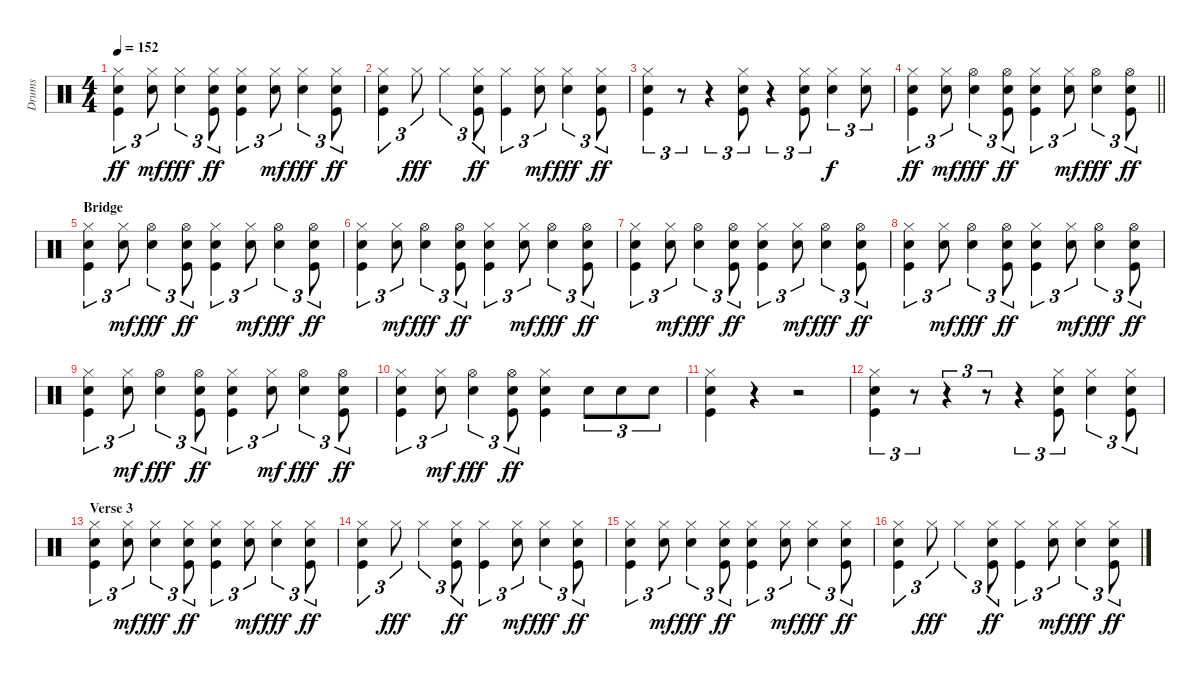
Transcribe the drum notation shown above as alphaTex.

\track ("Drums" "Drums") {instrument percussion}
\staff {score}
\articulation defaults
\ts (4 4)
\tempo 152
\clef neutral
\ks c
("Hi-Hat (closed)" "Snare (hit) 2" "Kick (hit)").4{tu (3 2) dy ff} ("Hi-Hat (closed)" "Snare (hit) 2").8{tu (3 2) dy mf} ("Hi-Hat (closed)" "Snare (hit) 2").4{tu (3 2) dy fff} ("Hi-Hat (closed)" "Snare (hit) 2" "Kick (hit)").8{tu (3 2) dy ff} ("Hi-Hat (closed)" "Snare (hit) 2" "Kick (hit)").4{tu (3 2)} ("Hi-Hat (closed)" "Snare (hit) 2").8{tu (3 2) dy mf} ("Hi-Hat (closed)" "Snare (hit) 2").4{tu (3 2) dy fff} ("Hi-Hat (closed)" "Snare (hit) 2" "Kick (hit)").8{tu (3 2) dy ff} |
("Hi-Hat (closed)" "Snare (hit) 2" "Kick (hit)").4{tu (3 2)} "Hi-Hat (closed)".8{tu (3 2) dy fff} "Hi-Hat (closed)".4{tu (3 2)} ("Hi-Hat (closed)" "Snare (hit) 2" "Kick (hit)").8{tu (3 2) dy ff} ("Hi-Hat (closed)" "Kick (hit)").4{tu (3 2)} ("Hi-Hat (closed)" "Snare (hit) 2").8{tu (3 2) dy mf} ("Hi-Hat (closed)" "Snare (hit) 2").4{tu (3 2) dy fff} ("Hi-Hat (closed)" "Snare (hit) 2" "Kick (hit)").8{tu (3 2) dy ff} |
("Hi-Hat (closed)" "Snare (hit) 2" "Kick (hit)").4{tu (3 2)} r.8{tu (3 2)} r.4{tu (3 2)} ("Hi-Hat (closed)" "Snare (hit) 2" "Kick (hit)").8{tu (3 2)} r.4{tu (3 2)} ("Hi-Hat (closed)" "Snare (hit) 2" "Kick (hit)").8{tu (3 2)} ("Hi-Hat (closed)" "Snare (hit) 2").4{tu (3 2) dy f} ("Hi-Hat (closed)" "Snare (hit) 2").8{tu (3 2)} |
\barLineRight lightlight
("Hi-Hat (closed)" "Snare (hit) 2" "Kick (hit)").4{tu (3 2) dy ff} ("Hi-Hat (closed)" "Snare (hit) 2").8{tu (3 2) dy mf} ("Hi-Hat (open)" "Snare (hit) 2").4{tu (3 2) dy fff} ("Hi-Hat (open)" "Snare (hit) 2" "Kick (hit)").8{tu (3 2) dy ff} ("Hi-Hat (closed)" "Snare (hit) 2" "Kick (hit)").4{tu (3 2)} ("Hi-Hat (closed)" "Snare (hit) 2").8{tu (3 2) dy mf} ("Hi-Hat (open)" "Snare (hit) 2").4{tu (3 2) dy fff} ("Hi-Hat (open)" "Snare (hit) 2" "Kick (hit)").8{tu (3 2) dy ff} |
\section ("" "Bridge")
("Hi-Hat (closed)" "Snare (hit) 2" "Kick (hit)").4{tu (3 2)} ("Hi-Hat (closed)" "Snare (hit) 2").8{tu (3 2) dy mf} ("Hi-Hat (open)" "Snare (hit) 2").4{tu (3 2) dy fff} ("Hi-Hat (open)" "Snare (hit) 2" "Kick (hit)").8{tu (3 2) dy ff} ("Hi-Hat (closed)" "Snare (hit) 2" "Kick (hit)").4{tu (3 2)} ("Hi-Hat (closed)" "Snare (hit) 2").8{tu (3 2) dy mf} ("Hi-Hat (open)" "Snare (hit) 2").4{tu (3 2) dy fff} ("Hi-Hat (open)" "Snare (hit) 2" "Kick (hit)").8{tu (3 2) dy ff} |
("Hi-Hat (closed)" "Snare (hit) 2" "Kick (hit)").4{tu (3 2)} ("Hi-Hat (closed)" "Snare (hit) 2").8{tu (3 2) dy mf} ("Hi-Hat (open)" "Snare (hit) 2").4{tu (3 2) dy fff} ("Hi-Hat (open)" "Snare (hit) 2" "Kick (hit)").8{tu (3 2) dy ff} ("Hi-Hat (closed)" "Snare (hit) 2" "Kick (hit)").4{tu (3 2)} ("Hi-Hat (closed)" "Snare (hit) 2").8{tu (3 2) dy mf} ("Hi-Hat (open)" "Snare (hit) 2").4{tu (3 2) dy fff} ("Hi-Hat (open)" "Snare (hit) 2" "Kick (hit)").8{tu (3 2) dy ff} |
("Hi-Hat (closed)" "Snare (hit) 2" "Kick (hit)").4{tu (3 2)} ("Hi-Hat (closed)" "Snare (hit) 2").8{tu (3 2) dy mf} ("Hi-Hat (open)" "Snare (hit) 2").4{tu (3 2) dy fff} ("Hi-Hat (open)" "Snare (hit) 2" "Kick (hit)").8{tu (3 2) dy ff} ("Hi-Hat (closed)" "Snare (hit) 2" "Kick (hit)").4{tu (3 2)} ("Hi-Hat (closed)" "Snare (hit) 2").8{tu (3 2) dy mf} ("Hi-Hat (open)" "Snare (hit) 2").4{tu (3 2) dy fff} ("Hi-Hat (open)" "Snare (hit) 2" "Kick (hit)").8{tu (3 2) dy ff} |
("Hi-Hat (closed)" "Snare (hit) 2" "Kick (hit)").4{tu (3 2)} ("Hi-Hat (closed)" "Snare (hit) 2").8{tu (3 2) dy mf} ("Hi-Hat (open)" "Snare (hit) 2").4{tu (3 2) dy fff} ("Hi-Hat (open)" "Snare (hit) 2" "Kick (hit)").8{tu (3 2) dy ff} ("Hi-Hat (closed)" "Snare (hit) 2" "Kick (hit)").4{tu (3 2)} ("Hi-Hat (closed)" "Snare (hit) 2").8{tu (3 2) dy mf} ("Hi-Hat (open)" "Snare (hit) 2").4{tu (3 2) dy fff} ("Hi-Hat (open)" "Snare (hit) 2" "Kick (hit)").8{tu (3 2) dy ff} |
("Hi-Hat (closed)" "Snare (hit) 2" "Kick (hit)").4{tu (3 2)} ("Hi-Hat (closed)" "Snare (hit) 2").8{tu (3 2) dy mf} ("Hi-Hat (open)" "Snare (hit) 2").4{tu (3 2) dy fff} ("Hi-Hat (open)" "Snare (hit) 2" "Kick (hit)").8{tu (3 2) dy ff} ("Hi-Hat (closed)" "Snare (hit) 2" "Kick (hit)").4{tu (3 2)} ("Hi-Hat (closed)" "Snare (hit) 2").8{tu (3 2) dy mf} ("Hi-Hat (open)" "Snare (hit) 2").4{tu (3 2) dy fff} ("Hi-Hat (open)" "Snare (hit) 2" "Kick (hit)").8{tu (3 2) dy ff} |
("Hi-Hat (closed)" "Snare (hit) 2" "Kick (hit)").4{tu (3 2)} ("Hi-Hat (closed)" "Snare (hit) 2").8{tu (3 2) dy mf} ("Hi-Hat (open)" "Snare (hit) 2").4{tu (3 2) dy fff} ("Hi-Hat (open)" "Snare (hit) 2" "Kick (hit)").8{tu (3 2) dy ff} ("Hi-Hat (closed)" "Snare (hit) 2" "Kick (hit)").4 "Snare (hit) 2".8{tu (3 2)} "Snare (hit) 2".8{tu (3 2)} "Snare (hit) 2".8{tu (3 2)} |
("Hi-Hat (closed)" "Snare (hit) 2" "Kick (hit)").4 r.4 r.2 |
("Hi-Hat (closed)" "Snare (hit) 2" "Kick (hit)").4{tu (3 2)} r.8{tu (3 2)} r.4{tu (3 2)} r.8{tu (3 2)} r.4{tu (3 2)} ("Hi-Hat (closed)" "Snare (hit) 2" "Kick (hit)").8{tu (3 2)} ("Hi-Hat (closed)" "Snare (hit) 2").4{tu (3 2)} ("Hi-Hat (closed)" "Snare (hit) 2" "Kick (hit)").8{tu (3 2)} |
\section ("" "Verse 3")
("Hi-Hat (closed)" "Snare (hit) 2" "Kick (hit)").4{tu (3 2)} ("Hi-Hat (closed)" "Snare (hit) 2").8{tu (3 2) dy mf} ("Hi-Hat (closed)" "Snare (hit) 2").4{tu (3 2) dy fff} ("Hi-Hat (closed)" "Snare (hit) 2" "Kick (hit)").8{tu (3 2) dy ff} ("Hi-Hat (closed)" "Snare (hit) 2" "Kick (hit)").4{tu (3 2)} ("Hi-Hat (closed)" "Snare (hit) 2").8{tu (3 2) dy mf} ("Hi-Hat (closed)" "Snare (hit) 2").4{tu (3 2) dy fff} ("Hi-Hat (closed)" "Snare (hit) 2" "Kick (hit)").8{tu (3 2) dy ff} |
("Hi-Hat (closed)" "Snare (hit) 2" "Kick (hit)").4{tu (3 2)} "Hi-Hat (closed)".8{tu (3 2) dy fff} "Hi-Hat (closed)".4{tu (3 2)} ("Hi-Hat (closed)" "Snare (hit) 2" "Kick (hit)").8{tu (3 2) dy ff} ("Hi-Hat (closed)" "Kick (hit)").4{tu (3 2)} ("Hi-Hat (closed)" "Snare (hit) 2").8{tu (3 2) dy mf} ("Hi-Hat (closed)" "Snare (hit) 2").4{tu (3 2) dy fff} ("Hi-Hat (closed)" "Snare (hit) 2" "Kick (hit)").8{tu (3 2) dy ff} |
("Hi-Hat (closed)" "Snare (hit) 2" "Kick (hit)").4{tu (3 2)} ("Hi-Hat (closed)" "Snare (hit) 2").8{tu (3 2) dy mf} ("Hi-Hat (closed)" "Snare (hit) 2").4{tu (3 2) dy fff} ("Hi-Hat (closed)" "Snare (hit) 2" "Kick (hit)").8{tu (3 2) dy ff} ("Hi-Hat (closed)" "Snare (hit) 2" "Kick (hit)").4{tu (3 2)} ("Hi-Hat (closed)" "Snare (hit) 2").8{tu (3 2) dy mf} ("Hi-Hat (closed)" "Snare (hit) 2").4{tu (3 2) dy fff} ("Hi-Hat (closed)" "Snare (hit) 2" "Kick (hit)").8{tu (3 2) dy ff} |
("Hi-Hat (closed)" "Snare (hit) 2" "Kick (hit)").4{tu (3 2)} "Hi-Hat (closed)".8{tu (3 2) dy fff} "Hi-Hat (closed)".4{tu (3 2)} ("Hi-Hat (closed)" "Snare (hit) 2" "Kick (hit)").8{tu (3 2) dy ff} ("Hi-Hat (closed)" "Kick (hit)").4{tu (3 2)} ("Hi-Hat (closed)" "Snare (hit) 2").8{tu (3 2) dy mf} ("Hi-Hat (closed)" "Snare (hit) 2").4{tu (3 2) dy fff} ("Hi-Hat (closed)" "Snare (hit) 2" "Kick (hit)").8{tu (3 2) dy ff}
